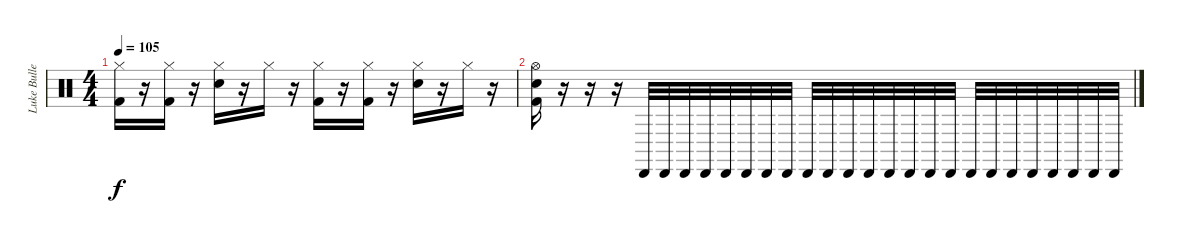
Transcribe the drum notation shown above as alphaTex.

\track ("Luke Bullen" "Luke Bulle") {instrument percussion}
\staff {score}
\articulation defaults
\ts (4 4)
\tempo 105
\clef neutral
\ks c
("Hi-Hat (closed)" "Kick (hit) 2").16{dy f} r.16 ("Hi-Hat (closed)" "Kick (hit) 2").16 r.16 ("Hi-Hat (closed)" "Electric Snare (hit)").16 r.16 "Hi-Hat (closed)".16 r.16 ("Hi-Hat (closed)" "Kick (hit) 2").16 r.16 ("Hi-Hat (closed)" "Kick (hit) 2").16 r.16 ("Hi-Hat (closed)" "Electric Snare (hit)").16 r.16 "Hi-Hat (closed)".16 r.16 |
("Hi-Hat (open)" "Electric Snare (hit)" "Kick (hit) 2").16 r.16 r.16 r.16 "Cabasa (hit)".32 "Cabasa (hit)".32 "Cabasa (hit)".32 "Cabasa (hit)".32 "Cabasa (hit)".32 "Cabasa (hit)".32 "Cabasa (hit)".32 "Cabasa (hit)".32 "Cabasa (hit)".32 "Cabasa (hit)".32 "Cabasa (hit)".32 "Cabasa (hit)".32 "Cabasa (hit)".32 "Cabasa (hit)".32 "Cabasa (hit)".32 "Cabasa (hit)".32 "Cabasa (hit)".32 "Cabasa (hit)".32 "Cabasa (hit)".32 "Cabasa (hit)".32 "Cabasa (hit)".32 "Cabasa (hit)".32 "Cabasa (hit)".32 "Cabasa (hit)".32
